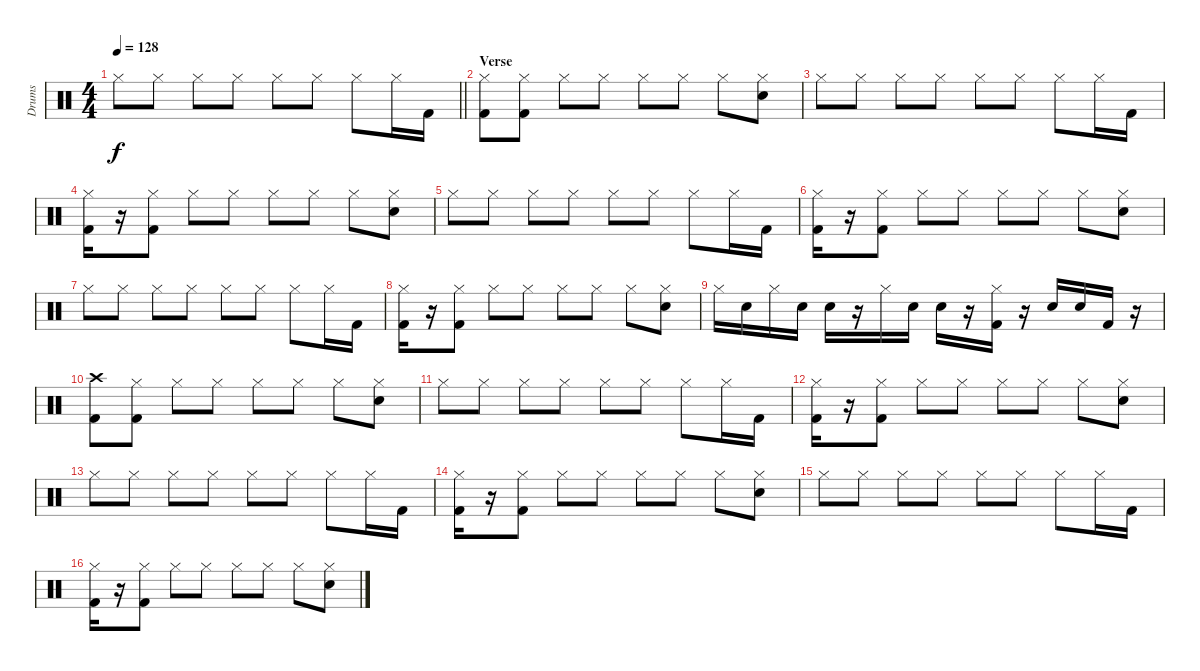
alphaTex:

\track ("Drums" "Drums") {instrument percussion}
\staff {score}
\articulation defaults
\ts (4 4)
\tempo 128
\clef neutral
\barLineRight lightlight
\ks c "Hi-Hat (closed)".8{dy f} "Hi-Hat (closed)".8 "Hi-Hat (closed)".8 "Hi-Hat (closed)".8 "Hi-Hat (closed)".8 "Hi-Hat (closed)".8 "Hi-Hat (closed)".8 "Hi-Hat (closed)".16 "Kick (hit) 2".16
|
\section ("" "Verse")
("Hi-Hat (closed)" "Kick (hit) 2").8 ("Hi-Hat (closed)" "Kick (hit) 2").8 "Hi-Hat (closed)".8 "Hi-Hat (closed)".8 "Hi-Hat (closed)".8 "Hi-Hat (closed)".8 "Hi-Hat (closed)".8 ("Hi-Hat (closed)" "Electric Snare (hit)").8 |
"Hi-Hat (closed)".8 "Hi-Hat (closed)".8 "Hi-Hat (closed)".8 "Hi-Hat (closed)".8 "Hi-Hat (closed)".8 "Hi-Hat (closed)".8 "Hi-Hat (closed)".8 "Hi-Hat (closed)".16 "Kick (hit) 2".16 |
("Hi-Hat (closed)" "Kick (hit) 2").16 r.16 ("Hi-Hat (closed)" "Kick (hit) 2").8 "Hi-Hat (closed)".8 "Hi-Hat (closed)".8 "Hi-Hat (closed)".8 "Hi-Hat (closed)".8 "Hi-Hat (closed)".8 ("Hi-Hat (closed)" "Electric Snare (hit)").8 |
"Hi-Hat (closed)".8 "Hi-Hat (closed)".8 "Hi-Hat (closed)".8 "Hi-Hat (closed)".8 "Hi-Hat (closed)".8 "Hi-Hat (closed)".8 "Hi-Hat (closed)".8 "Hi-Hat (closed)".16 "Kick (hit) 2".16 |
("Hi-Hat (closed)" "Kick (hit) 2").16 r.16 ("Hi-Hat (closed)" "Kick (hit) 2").8 "Hi-Hat (closed)".8 "Hi-Hat (closed)".8 "Hi-Hat (closed)".8 "Hi-Hat (closed)".8 "Hi-Hat (closed)".8 ("Hi-Hat (closed)" "Electric Snare (hit)").8 |
"Hi-Hat (closed)".8 "Hi-Hat (closed)".8 "Hi-Hat (closed)".8 "Hi-Hat (closed)".8 "Hi-Hat (closed)".8 "Hi-Hat (closed)".8 "Hi-Hat (closed)".8 "Hi-Hat (closed)".16 "Kick (hit) 2".16 |
("Hi-Hat (closed)" "Kick (hit) 2").16 r.16 ("Hi-Hat (closed)" "Kick (hit) 2").8 "Hi-Hat (closed)".8 "Hi-Hat (closed)".8 "Hi-Hat (closed)".8 "Hi-Hat (closed)".8 "Hi-Hat (closed)".8 ("Hi-Hat (closed)" "Electric Snare (hit)").8 |
"Hi-Hat (closed)".16 "Electric Snare (hit)".16 "Hi-Hat (closed)".16 "Electric Snare (hit)".16 "Electric Snare (hit)".16 r.16 "Hi-Hat (closed)".16 "Electric Snare (hit)".16 "Electric Snare (hit)".16 r.16 ("Hi-Hat (closed)" "Kick (hit) 2").16 r.16 "Electric Snare (hit)".16 "Electric Snare (hit)".16 "Kick (hit) 2".16 r.16 |
("Crash high (hit)" "Kick (hit) 2").8 ("Hi-Hat (closed)" "Kick (hit) 2").8 "Hi-Hat (closed)".8 "Hi-Hat (closed)".8 "Hi-Hat (closed)".8 "Hi-Hat (closed)".8 "Hi-Hat (closed)".8 ("Hi-Hat (closed)" "Electric Snare (hit)").8 |
"Hi-Hat (closed)".8 "Hi-Hat (closed)".8 "Hi-Hat (closed)".8 "Hi-Hat (closed)".8 "Hi-Hat (closed)".8 "Hi-Hat (closed)".8 "Hi-Hat (closed)".8 "Hi-Hat (closed)".16 "Kick (hit) 2".16 |
("Hi-Hat (closed)" "Kick (hit) 2").16 r.16 ("Hi-Hat (closed)" "Kick (hit) 2").8 "Hi-Hat (closed)".8 "Hi-Hat (closed)".8 "Hi-Hat (closed)".8 "Hi-Hat (closed)".8 "Hi-Hat (closed)".8 ("Hi-Hat (closed)" "Electric Snare (hit)").8 |
"Hi-Hat (closed)".8 "Hi-Hat (closed)".8 "Hi-Hat (closed)".8 "Hi-Hat (closed)".8 "Hi-Hat (closed)".8 "Hi-Hat (closed)".8 "Hi-Hat (closed)".8 "Hi-Hat (closed)".16 "Kick (hit) 2".16 |
("Hi-Hat (closed)" "Kick (hit) 2").16 r.16 ("Hi-Hat (closed)" "Kick (hit) 2").8 "Hi-Hat (closed)".8 "Hi-Hat (closed)".8 "Hi-Hat (closed)".8 "Hi-Hat (closed)".8 "Hi-Hat (closed)".8 ("Hi-Hat (closed)" "Electric Snare (hit)").8 |
"Hi-Hat (closed)".8 "Hi-Hat (closed)".8 "Hi-Hat (closed)".8 "Hi-Hat (closed)".8 "Hi-Hat (closed)".8 "Hi-Hat (closed)".8 "Hi-Hat (closed)".8 "Hi-Hat (closed)".16 "Kick (hit) 2".16 |
("Hi-Hat (closed)" "Kick (hit) 2").16 r.16 ("Hi-Hat (closed)" "Kick (hit) 2").8 "Hi-Hat (closed)".8 "Hi-Hat (closed)".8 "Hi-Hat (closed)".8 "Hi-Hat (closed)".8 "Hi-Hat (closed)".8 ("Hi-Hat (closed)" "Electric Snare (hit)").8
